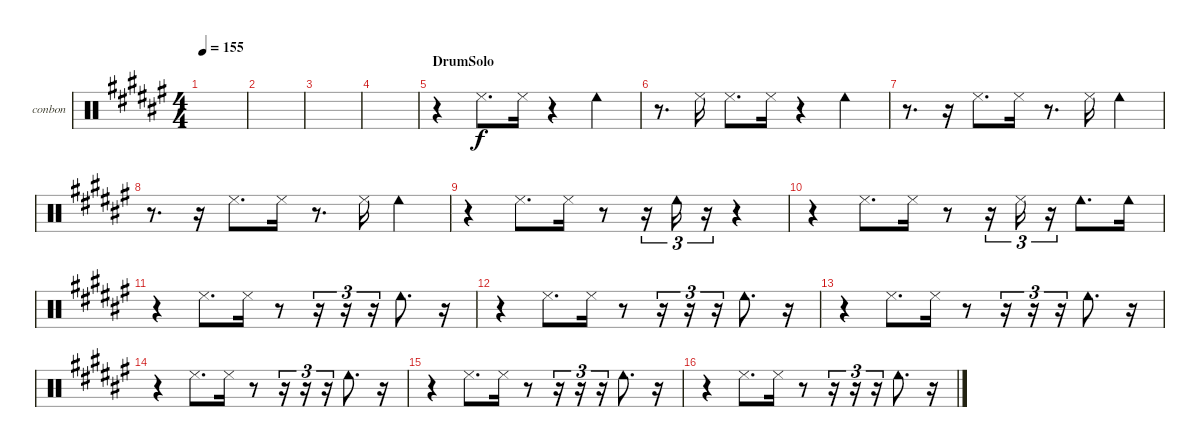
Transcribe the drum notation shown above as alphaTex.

\bracketExtendMode groupsimilarinstruments
\firstSystemTrackNameOrientation horizontal
\otherSystemsTrackNameOrientation horizontal
\track ("Bongos N Congas" "conbon") {instrument percussion}
\staff {score}
\articulation defaults
\ts (4 4)
\tempo 155
\clef neutral
\scale
0.333333
\ks f#
|
\scale
0.333333 |
\scale
0.333333 |
\scale
0.333333 |
\section ("" "DrumSolo")
\scale
0.333333 r.4 "Cowbell low (tip)".8{d} "Cowbell low (tip)".16 r.4 "Cowbell low (hit)".4 |
\scale
0.333333 r.8{d} "Cowbell low (tip)".16 "Cowbell low (tip)".8{d} "Cowbell low (tip)".16 r.4 "Cowbell low (hit)".4 |
r.8{d} r.16 "Cowbell low (tip)".8{d} "Cowbell low (tip)".16 r.8{d} "Cowbell low (tip)".16 "Cowbell low (hit)".4 |
r.8{d} r.16 "Cowbell low (tip)".8{d} "Cowbell low (tip)".16 r.8{d} "Cowbell low (tip)".16 "Cowbell low (hit)".4 |
r.4 "Cowbell low (tip)".8{d} "Cowbell low (tip)".16 r.8 r.16{tu (3 2)} "Cowbell low (hit)".16{tu (3 2)} r.16{tu (3 2)} r.4 |
r.4 "Cowbell low (tip)".8{d} "Cowbell low (tip)".16 r.8 r.16{tu (3 2)} "Cowbell low (tip)".16{tu (3 2)} r.16{tu (3 2)} "Cowbell low (hit)".8{d} "Cowbell low (hit)".16 |
r.4 "Cowbell low (tip)".8{d} "Cowbell low (tip)".16 r.8 r.16{tu (3 2)} r.16{tu (3 2)} r.16{tu (3 2)} "Cowbell low (hit)".8{d} r.16 |
r.4 "Cowbell low (tip)".8{d} "Cowbell low (tip)".16 r.8 r.16{tu (3 2)} r.16{tu (3 2)} r.16{tu (3 2)} "Cowbell low (hit)".8{d} r.16 |
r.4 "Cowbell low (tip)".8{d} "Cowbell low (tip)".16 r.8 r.16{tu (3 2)} r.16{tu (3 2)} r.16{tu (3 2)} "Cowbell low (hit)".8{d} r.16 |
r.4 "Cowbell low (tip)".8{d} "Cowbell low (tip)".16 r.8 r.16{tu (3 2)} r.16{tu (3 2)} r.16{tu (3 2)} "Cowbell low (hit)".8{d} r.16 |
r.4 "Cowbell low (tip)".8{d} "Cowbell low (tip)".16 r.8 r.16{tu (3 2)} r.16{tu (3 2)} r.16{tu (3 2)} "Cowbell low (hit)".8{d} r.16 |
r.4 "Cowbell low (tip)".8{d} "Cowbell low (tip)".16 r.8 r.16{tu (3 2)} r.16{tu (3 2)} r.16{tu (3 2)} "Cowbell low (hit)".8{d} r.16
